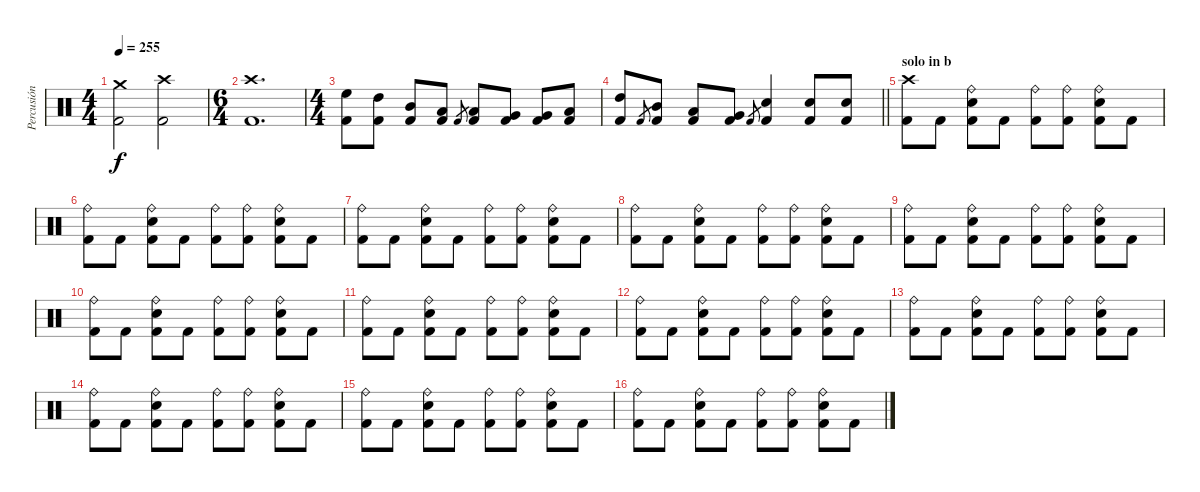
\track ("Percusión" "Percusión") {instrument percussion}
\staff {score}
\articulation defaults
\ts (4 4)
\tempo 255
\clef neutral
\ks c
("Kick (hit) 2" "Crash medium (hit)").2{dy f} ("Kick (hit) 2" "Crash high (hit)").2 |
\ts (6 4)
("Kick (hit) 2" "Crash high (hit)").1{d} |
\ts (4 4)
("Kick (hit) 2" "High Floor Tom (hit)").8 ("Kick (hit) 2" "High Tom (hit)").8 ("Kick (hit) 2" "Mid Tom (hit)").8 ("Kick (hit) 2" "Low Tom (hit)").8 "Kick (hit) 2".8{gr} ("Kick (hit) 2" "Low Tom (hit)").8 ("Kick (hit) 2" "Very Low Tom (hit)").8 ("Kick (hit) 2" "Very Low Tom (hit)").8 ("Kick (hit) 2" "Low Floor Tom (hit)").8 |
\barLineRight lightlight
("Kick (hit) 2" "High Tom (hit)").8 "Kick (hit) 2".8{gr} ("Kick (hit) 2" "Mid Tom (hit)").8 ("Kick (hit) 2" "Low Tom (hit)").8 ("Kick (hit) 2" "Very Low Tom (hit)").8 "Kick (hit) 2".8{gr} ("Kick (hit) 2" "Electric Snare (hit)").4 ("Kick (hit) 2" "Electric Snare (hit)").8 ("Kick (hit) 2" "Electric Snare (hit)").8 |
\section ("" "solo in b")
("Kick (hit) 2" "Crash high (hit)").8 "Kick (hit) 2".8 ("Kick (hit) 2" "Electric Snare (hit)" "Ride (bell)").8 "Kick (hit) 2".8 ("Kick (hit) 2" "Ride (bell)").8 ("Kick (hit) 2" "Ride (bell)").8 ("Kick (hit) 2" "Electric Snare (hit)" "Ride (bell)").8 "Kick (hit) 2".8 |
("Kick (hit) 2" "Ride (bell)").8 "Kick (hit) 2".8 ("Kick (hit) 2" "Electric Snare (hit)" "Ride (bell)").8 "Kick (hit) 2".8 ("Kick (hit) 2" "Ride (bell)").8 ("Kick (hit) 2" "Ride (bell)").8 ("Kick (hit) 2" "Electric Snare (hit)" "Ride (bell)").8 "Kick (hit) 2".8 |
("Kick (hit) 2" "Ride (bell)").8 "Kick (hit) 2".8 ("Kick (hit) 2" "Electric Snare (hit)" "Ride (bell)").8 "Kick (hit) 2".8 ("Kick (hit) 2" "Ride (bell)").8 ("Kick (hit) 2" "Ride (bell)").8 ("Kick (hit) 2" "Electric Snare (hit)" "Ride (bell)").8 "Kick (hit) 2".8 |
("Kick (hit) 2" "Ride (bell)").8 "Kick (hit) 2".8 ("Kick (hit) 2" "Electric Snare (hit)" "Ride (bell)").8 "Kick (hit) 2".8 ("Kick (hit) 2" "Ride (bell)").8 ("Kick (hit) 2" "Ride (bell)").8 ("Kick (hit) 2" "Electric Snare (hit)" "Ride (bell)").8 "Kick (hit) 2".8 |
("Kick (hit) 2" "Ride (bell)").8 "Kick (hit) 2".8 ("Kick (hit) 2" "Electric Snare (hit)" "Ride (bell)").8 "Kick (hit) 2".8 ("Kick (hit) 2" "Ride (bell)").8 ("Kick (hit) 2" "Ride (bell)").8 ("Kick (hit) 2" "Electric Snare (hit)" "Ride (bell)").8 "Kick (hit) 2".8 |
("Kick (hit) 2" "Ride (bell)").8 "Kick (hit) 2".8 ("Kick (hit) 2" "Electric Snare (hit)" "Ride (bell)").8 "Kick (hit) 2".8 ("Kick (hit) 2" "Ride (bell)").8 ("Kick (hit) 2" "Ride (bell)").8 ("Kick (hit) 2" "Electric Snare (hit)" "Ride (bell)").8 "Kick (hit) 2".8 |
("Kick (hit) 2" "Ride (bell)").8 "Kick (hit) 2".8 ("Kick (hit) 2" "Electric Snare (hit)" "Ride (bell)").8 "Kick (hit) 2".8 ("Kick (hit) 2" "Ride (bell)").8 ("Kick (hit) 2" "Ride (bell)").8 ("Kick (hit) 2" "Electric Snare (hit)" "Ride (bell)").8 "Kick (hit) 2".8 |
("Kick (hit) 2" "Ride (bell)").8 "Kick (hit) 2".8 ("Kick (hit) 2" "Electric Snare (hit)" "Ride (bell)").8 "Kick (hit) 2".8 ("Kick (hit) 2" "Ride (bell)").8 ("Kick (hit) 2" "Ride (bell)").8 ("Kick (hit) 2" "Electric Snare (hit)" "Ride (bell)").8 "Kick (hit) 2".8 |
("Kick (hit) 2" "Ride (bell)").8 "Kick (hit) 2".8 ("Kick (hit) 2" "Electric Snare (hit)" "Ride (bell)").8 "Kick (hit) 2".8 ("Kick (hit) 2" "Ride (bell)").8 ("Kick (hit) 2" "Ride (bell)").8 ("Kick (hit) 2" "Electric Snare (hit)" "Ride (bell)").8 "Kick (hit) 2".8 |
("Kick (hit) 2" "Ride (bell)").8 "Kick (hit) 2".8 ("Kick (hit) 2" "Electric Snare (hit)" "Ride (bell)").8 "Kick (hit) 2".8 ("Kick (hit) 2" "Ride (bell)").8 ("Kick (hit) 2" "Ride (bell)").8 ("Kick (hit) 2" "Electric Snare (hit)" "Ride (bell)").8 "Kick (hit) 2".8 |
("Kick (hit) 2" "Ride (bell)").8 "Kick (hit) 2".8 ("Kick (hit) 2" "Electric Snare (hit)" "Ride (bell)").8 "Kick (hit) 2".8 ("Kick (hit) 2" "Ride (bell)").8 ("Kick (hit) 2" "Ride (bell)").8 ("Kick (hit) 2" "Electric Snare (hit)" "Ride (bell)").8 "Kick (hit) 2".8 |
("Kick (hit) 2" "Ride (bell)").8 "Kick (hit) 2".8 ("Kick (hit) 2" "Electric Snare (hit)" "Ride (bell)").8 "Kick (hit) 2".8 ("Kick (hit) 2" "Ride (bell)").8 ("Kick (hit) 2" "Ride (bell)").8 ("Kick (hit) 2" "Electric Snare (hit)" "Ride (bell)").8 "Kick (hit) 2".8
